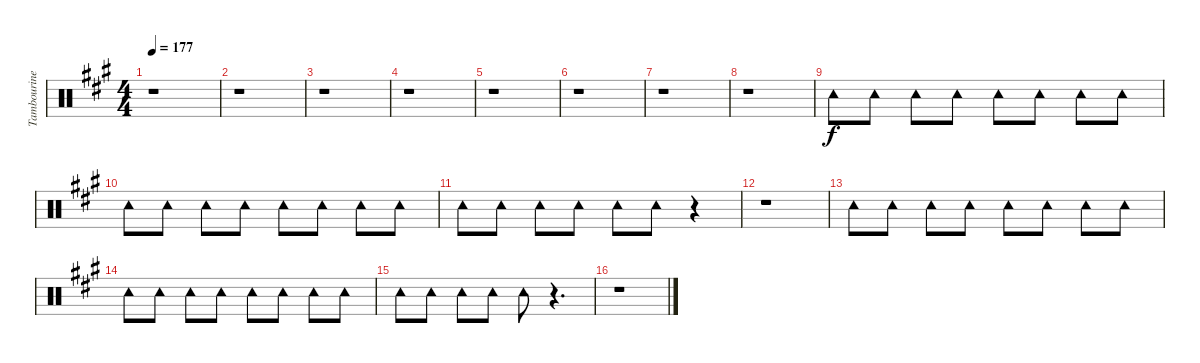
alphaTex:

\track ("Tambourine" "Tambourine") {instrument percussion}
\staff {score}
\articulation defaults
\ts (4 4)
\tempo 177
\clef neutral
\ks a
r.1{dy f} |
r.1 |
r.1 |
r.1 |
r.1 |
r.1 |
r.1 |
r.1 |
"Tambourine (hit)".8 "Tambourine (hit)".8 "Tambourine (hit)".8 "Tambourine (hit)".8 "Tambourine (hit)".8 "Tambourine (hit)".8 "Tambourine (hit)".8 "Tambourine (hit)".8 |
"Tambourine (hit)".8 "Tambourine (hit)".8 "Tambourine (hit)".8 "Tambourine (hit)".8 "Tambourine (hit)".8 "Tambourine (hit)".8 "Tambourine (hit)".8 "Tambourine (hit)".8 |
"Tambourine (hit)".8 "Tambourine (hit)".8 "Tambourine (hit)".8 "Tambourine (hit)".8 "Tambourine (hit)".8 "Tambourine (hit)".8 r.4 |
r.1 |
"Tambourine (hit)".8 "Tambourine (hit)".8 "Tambourine (hit)".8 "Tambourine (hit)".8 "Tambourine (hit)".8 "Tambourine (hit)".8 "Tambourine (hit)".8 "Tambourine (hit)".8 |
"Tambourine (hit)".8 "Tambourine (hit)".8 "Tambourine (hit)".8 "Tambourine (hit)".8 "Tambourine (hit)".8 "Tambourine (hit)".8 "Tambourine (hit)".8 "Tambourine (hit)".8 |
"Tambourine (hit)".8 "Tambourine (hit)".8 "Tambourine (hit)".8 "Tambourine (hit)".8 "Tambourine (hit)".8 r.4{d} |
r.1
